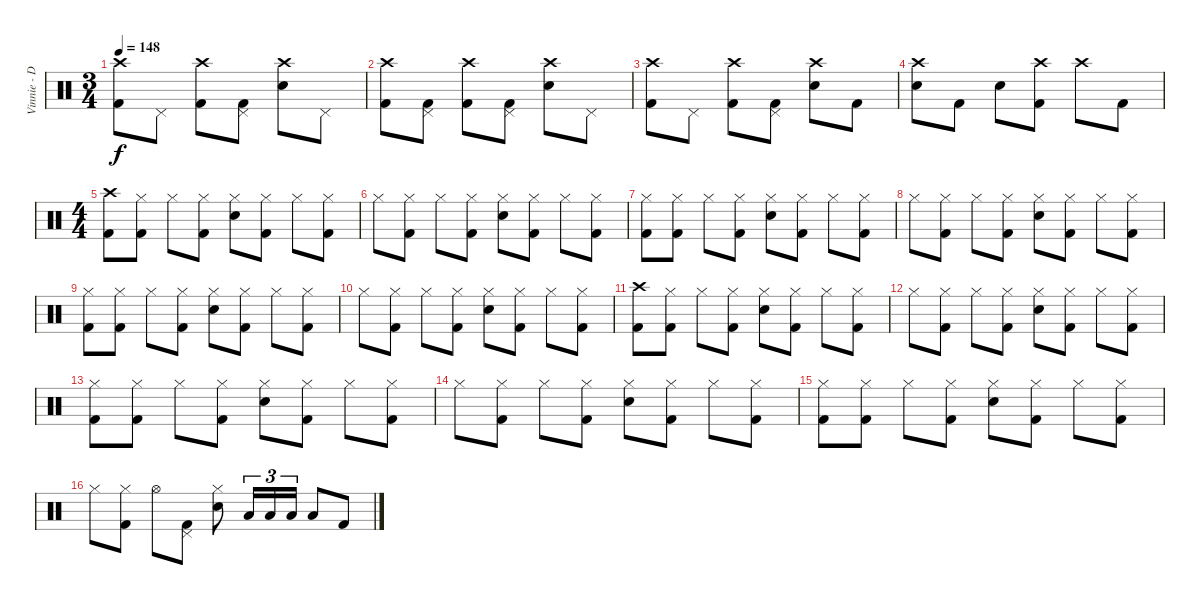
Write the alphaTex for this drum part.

\track ("Vinnie - Drums" "Vinnie - D") {instrument percussion}
\staff {score}
\articulation defaults
\ts (3 4)
\tempo 148
\clef neutral
\ks c
("Crash high (hit)" "Kick (hit) 2").8{dy f} "Pedal Hi-Hat (hit)".8 ("Crash high (hit)" "Kick (hit) 2").8 ("Pedal Hi-Hat (hit)" "Kick (hit) 2").8 ("Crash high (hit)" "Electric Snare (hit)").8 "Pedal Hi-Hat (hit)".8 |
("Crash high (hit)" "Kick (hit) 2").8 ("Pedal Hi-Hat (hit)" "Kick (hit) 2").8 ("Crash high (hit)" "Kick (hit) 2").8 ("Pedal Hi-Hat (hit)" "Kick (hit) 2").8 ("Crash high (hit)" "Electric Snare (hit)").8 "Pedal Hi-Hat (hit)".8 |
("Crash high (hit)" "Kick (hit) 2").8 "Pedal Hi-Hat (hit)".8 ("Crash high (hit)" "Kick (hit) 2").8 ("Pedal Hi-Hat (hit)" "Kick (hit) 2").8 ("Crash high (hit)" "Electric Snare (hit)").8 "Kick (hit) 2".8 |
("Crash high (hit)" "Electric Snare (hit)").8 "Kick (hit) 2".8 "Electric Snare (hit)".8 ("Crash high (hit)" "Kick (hit) 2").8 "Crash high (hit)".8 "Kick (hit) 2".8 |
\ts (4 4)
("Crash high (hit)" "Kick (hit) 2").8 ("Hi-Hat (closed)" "Kick (hit) 2").8 "Hi-Hat (closed)".8 ("Hi-Hat (closed)" "Kick (hit) 2").8 ("Hi-Hat (closed)" "Electric Snare (hit)").8 ("Hi-Hat (closed)" "Kick (hit) 2").8 "Hi-Hat (closed)".8 ("Hi-Hat (closed)" "Kick (hit) 2").8 |
"Hi-Hat (closed)".8 ("Hi-Hat (closed)" "Kick (hit) 2").8 "Hi-Hat (closed)".8 ("Hi-Hat (closed)" "Kick (hit) 2").8 ("Hi-Hat (closed)" "Electric Snare (hit)").8 ("Hi-Hat (closed)" "Kick (hit) 2").8 "Hi-Hat (closed)".8 ("Hi-Hat (closed)" "Kick (hit) 2").8 |
("Hi-Hat (closed)" "Kick (hit) 2").8 ("Hi-Hat (closed)" "Kick (hit) 2").8 "Hi-Hat (closed)".8 ("Hi-Hat (closed)" "Kick (hit) 2").8 ("Hi-Hat (closed)" "Electric Snare (hit)").8 ("Hi-Hat (closed)" "Kick (hit) 2").8 "Hi-Hat (closed)".8 ("Hi-Hat (closed)" "Kick (hit) 2").8 |
"Hi-Hat (closed)".8 ("Hi-Hat (closed)" "Kick (hit) 2").8 "Hi-Hat (closed)".8 ("Hi-Hat (closed)" "Kick (hit) 2").8 ("Hi-Hat (closed)" "Electric Snare (hit)").8 ("Hi-Hat (closed)" "Kick (hit) 2").8 "Hi-Hat (closed)".8 ("Hi-Hat (closed)" "Kick (hit) 2").8 |
("Hi-Hat (closed)" "Kick (hit) 2").8 ("Hi-Hat (closed)" "Kick (hit) 2").8 "Hi-Hat (closed)".8 ("Hi-Hat (closed)" "Kick (hit) 2").8 ("Hi-Hat (closed)" "Electric Snare (hit)").8 ("Hi-Hat (closed)" "Kick (hit) 2").8 "Hi-Hat (closed)".8 ("Hi-Hat (closed)" "Kick (hit) 2").8 |
"Hi-Hat (closed)".8 ("Hi-Hat (closed)" "Kick (hit) 2").8 "Hi-Hat (closed)".8 ("Hi-Hat (closed)" "Kick (hit) 2").8 ("Hi-Hat (closed)" "Electric Snare (hit)").8 ("Hi-Hat (closed)" "Kick (hit) 2").8 "Hi-Hat (closed)".8 ("Hi-Hat (closed)" "Kick (hit) 2").8 |
("Crash high (hit)" "Kick (hit) 2").8 ("Hi-Hat (closed)" "Kick (hit) 2").8 "Hi-Hat (closed)".8 ("Hi-Hat (closed)" "Kick (hit) 2").8 ("Hi-Hat (closed)" "Electric Snare (hit)").8 ("Hi-Hat (closed)" "Kick (hit) 2").8 "Hi-Hat (closed)".8 ("Hi-Hat (closed)" "Kick (hit) 2").8 |
"Hi-Hat (closed)".8 ("Hi-Hat (closed)" "Kick (hit) 2").8 "Hi-Hat (closed)".8 ("Hi-Hat (closed)" "Kick (hit) 2").8 ("Hi-Hat (closed)" "Electric Snare (hit)").8 ("Hi-Hat (closed)" "Kick (hit) 2").8 "Hi-Hat (closed)".8 ("Hi-Hat (closed)" "Kick (hit) 2").8 |
("Hi-Hat (closed)" "Kick (hit) 2").8 ("Hi-Hat (closed)" "Kick (hit) 2").8 "Hi-Hat (closed)".8 ("Hi-Hat (closed)" "Kick (hit) 2").8 ("Hi-Hat (closed)" "Electric Snare (hit)").8 ("Hi-Hat (closed)" "Kick (hit) 2").8 "Hi-Hat (closed)".8 ("Hi-Hat (closed)" "Kick (hit) 2").8 |
"Hi-Hat (closed)".8 ("Hi-Hat (closed)" "Kick (hit) 2").8 "Hi-Hat (closed)".8 ("Hi-Hat (closed)" "Kick (hit) 2").8 ("Hi-Hat (closed)" "Electric Snare (hit)").8 ("Hi-Hat (closed)" "Kick (hit) 2").8 "Hi-Hat (closed)".8 ("Hi-Hat (closed)" "Kick (hit) 2").8 |
("Hi-Hat (closed)" "Kick (hit) 2").8 ("Hi-Hat (closed)" "Kick (hit) 2").8 "Hi-Hat (closed)".8 ("Hi-Hat (closed)" "Kick (hit) 2").8 ("Hi-Hat (closed)" "Electric Snare (hit)").8 ("Hi-Hat (closed)" "Kick (hit) 2").8 "Hi-Hat (closed)".8 ("Hi-Hat (closed)" "Kick (hit) 2").8 |
"Hi-Hat (closed)".8 ("Hi-Hat (closed)" "Kick (hit) 2").8 "Hi-Hat (open)".8 ("Pedal Hi-Hat (hit)" "Kick (hit) 2").8 ("Hi-Hat (closed)" "Electric Snare (hit)").8 "Low Tom (hit)".16{tu (3 2)} "Low Tom (hit)".16{tu (3 2)} "Low Tom (hit)".16{tu (3 2)} "Low Tom (hit)".8 "Kick (hit) 2".8
